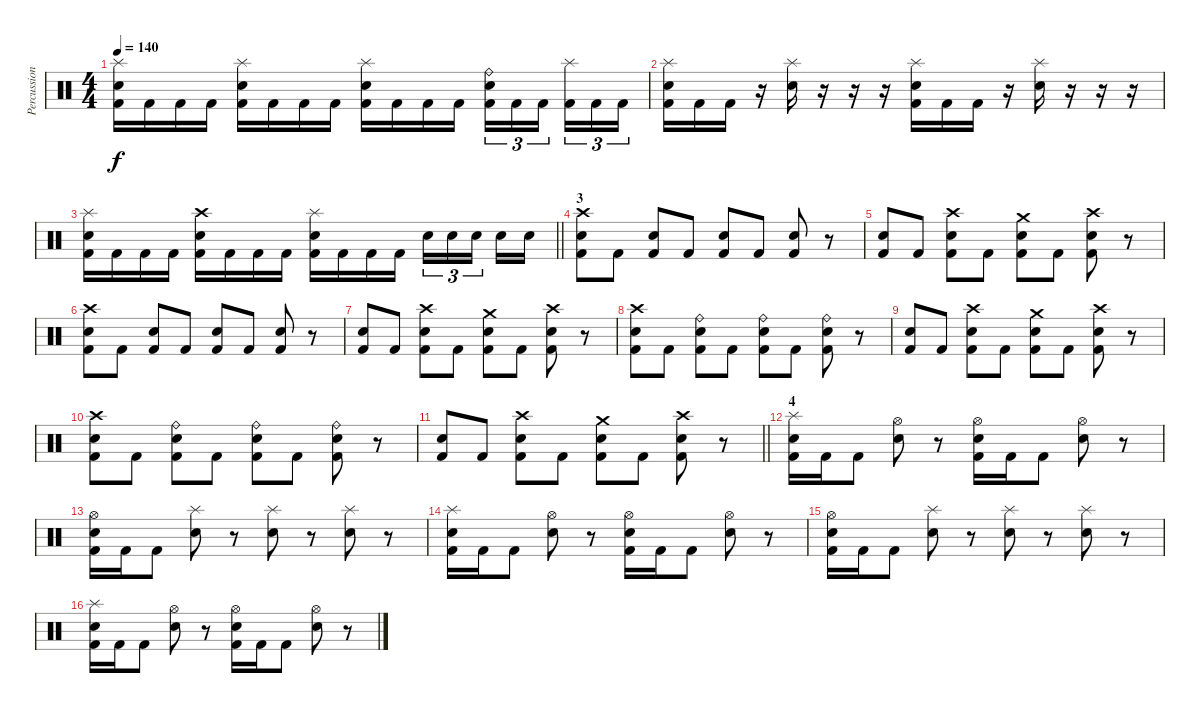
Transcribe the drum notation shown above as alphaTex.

\track ("Percussion" "Percussion") {instrument percussion}
\staff {score}
\articulation defaults
\ts (4 4)
\tempo 140
\clef neutral
\ks c
("Splash (hit)" "Snare (hit) 2" "Kick (hit) 2").16{dy f} "Kick (hit) 2".16 "Kick (hit) 2".16 "Kick (hit) 2".16 ("Splash (hit)" "Snare (hit) 2" "Kick (hit) 2").16 "Kick (hit) 2".16 "Kick (hit) 2".16 "Kick (hit) 2".16 ("Splash (hit)" "Snare (hit) 2" "Kick (hit) 2").16 "Kick (hit) 2".16 "Kick (hit) 2".16 "Kick (hit) 2".16 ("Ride (bell)" "Snare (hit) 2" "Kick (hit) 2").16{tu (3 2)} "Kick (hit) 2".16{tu (3 2)} "Kick (hit) 2".16{tu (3 2) beam splitsecondary} ("Splash (hit)" "Kick (hit) 2").16{tu (3 2)} "Kick (hit) 2".16{tu (3 2)} "Kick (hit) 2".16{tu (3 2)} |
("Splash (hit)" "Snare (hit) 2" "Kick (hit) 2").16 "Kick (hit) 2".16 "Kick (hit) 2".16 r.16 ("Splash (hit)" "Snare (hit) 2").16 r.16 r.16 r.16 ("Splash (hit)" "Snare (hit) 2" "Kick (hit) 2").16 "Kick (hit) 2".16 "Kick (hit) 2".16 r.16 ("Splash (hit)" "Snare (hit) 2").16 r.16 r.16 r.16 |
\barLineRight lightlight
("Splash (hit)" "Snare (hit) 2" "Kick (hit) 2").16 "Kick (hit) 2".16 "Kick (hit) 2".16 "Kick (hit) 2".16 ("Crash high (hit)" "Snare (hit) 2" "Kick (hit) 2").16 "Kick (hit) 2".16 "Kick (hit) 2".16 "Kick (hit) 2".16 ("Splash (hit)" "Snare (hit) 2" "Kick (hit) 2").16 "Kick (hit) 2".16 "Kick (hit) 2".16 "Kick (hit) 2".16 "Snare (hit) 2".16{tu (3 2)} "Snare (hit) 2".16{tu (3 2)} "Snare (hit) 2".16{tu (3 2) beam splitsecondary} "Snare (hit) 2".16 "Snare (hit) 2".16 |
\section ("" "3")
("Crash high (hit)" "Snare (hit) 2" "Kick (hit) 2").8 "Kick (hit) 2".8 ("Snare (hit) 2" "Kick (hit) 2").8 "Kick (hit) 2".8 ("Snare (hit) 2" "Kick (hit) 2").8 "Kick (hit) 2".8 ("Snare (hit) 2" "Kick (hit) 2").8 r.8 |
("Snare (hit) 2" "Kick (hit) 2").8 "Kick (hit) 2".8 ("Crash high (hit)" "Snare (hit) 2" "Kick (hit) 2").8 "Kick (hit) 2".8 ("Crash medium (hit)" "Snare (hit) 2" "Kick (hit) 2").8 "Kick (hit) 2".8 ("Crash high (hit)" "Snare (hit) 2" "Kick (hit) 2").8 r.8 |
("Crash high (hit)" "Snare (hit) 2" "Kick (hit) 2").8 "Kick (hit) 2".8 ("Snare (hit) 2" "Kick (hit) 2").8 "Kick (hit) 2".8 ("Snare (hit) 2" "Kick (hit) 2").8 "Kick (hit) 2".8 ("Snare (hit) 2" "Kick (hit) 2").8 r.8 |
("Snare (hit) 2" "Kick (hit) 2").8 "Kick (hit) 2".8 ("Crash high (hit)" "Snare (hit) 2" "Kick (hit) 2").8 "Kick (hit) 2".8 ("Crash medium (hit)" "Snare (hit) 2" "Kick (hit) 2").8 "Kick (hit) 2".8 ("Crash high (hit)" "Snare (hit) 2" "Kick (hit) 2").8 r.8 |
("Crash high (hit)" "Snare (hit) 2" "Kick (hit) 2").8 "Kick (hit) 2".8 ("Ride (bell)" "Snare (hit) 2" "Kick (hit) 2").8 "Kick (hit) 2".8 ("Ride (bell)" "Snare (hit) 2" "Kick (hit) 2").8 "Kick (hit) 2".8 ("Ride (bell)" "Snare (hit) 2" "Kick (hit) 2").8 r.8 |
("Snare (hit) 2" "Kick (hit) 2").8 "Kick (hit) 2".8 ("Crash high (hit)" "Snare (hit) 2" "Kick (hit) 2").8 "Kick (hit) 2".8 ("Crash medium (hit)" "Snare (hit) 2" "Kick (hit) 2").8 "Kick (hit) 2".8 ("Crash high (hit)" "Snare (hit) 2" "Kick (hit) 2").8 r.8 |
("Crash high (hit)" "Snare (hit) 2" "Kick (hit) 2").8 "Kick (hit) 2".8 ("Ride (bell)" "Snare (hit) 2" "Kick (hit) 2").8 "Kick (hit) 2".8 ("Ride (bell)" "Snare (hit) 2" "Kick (hit) 2").8 "Kick (hit) 2".8 ("Ride (bell)" "Snare (hit) 2" "Kick (hit) 2").8 r.8 |
\barLineRight lightlight
("Snare (hit) 2" "Kick (hit) 2").8 "Kick (hit) 2".8 ("Crash high (hit)" "Snare (hit) 2" "Kick (hit) 2").8 "Kick (hit) 2".8 ("Crash medium (hit)" "Snare (hit) 2" "Kick (hit) 2").8 "Kick (hit) 2".8 ("Crash high (hit)" "Snare (hit) 2" "Kick (hit) 2").8 r.8 |
\section ("" "4")
("Splash (hit)" "Snare (hit) 2" "Kick (hit) 2").16 "Kick (hit) 2".16 "Kick (hit) 2".8 ("Hi-Hat (open)" "Snare (hit) 2").8 r.8 ("Hi-Hat (open)" "Snare (hit) 2" "Kick (hit) 2").16 "Kick (hit) 2".16 "Kick (hit) 2".8 ("Hi-Hat (open)" "Snare (hit) 2").8 r.8 |
("Hi-Hat (open)" "Snare (hit) 2" "Kick (hit) 2").16 "Kick (hit) 2".16 "Kick (hit) 2".8 ("Splash (hit)" "Snare (hit) 2").8 r.8 ("Splash (hit)" "Snare (hit) 2").8 r.8 ("Splash (hit)" "Snare (hit) 2").8 r.8 |
("Splash (hit)" "Snare (hit) 2" "Kick (hit) 2").16 "Kick (hit) 2".16 "Kick (hit) 2".8 ("Hi-Hat (open)" "Snare (hit) 2").8 r.8 ("Hi-Hat (open)" "Snare (hit) 2" "Kick (hit) 2").16 "Kick (hit) 2".16 "Kick (hit) 2".8 ("Hi-Hat (open)" "Snare (hit) 2").8 r.8 |
("Hi-Hat (open)" "Snare (hit) 2" "Kick (hit) 2").16 "Kick (hit) 2".16 "Kick (hit) 2".8 ("Splash (hit)" "Snare (hit) 2").8 r.8 ("Splash (hit)" "Snare (hit) 2").8 r.8 ("Splash (hit)" "Snare (hit) 2").8 r.8 |
("Splash (hit)" "Snare (hit) 2" "Kick (hit) 2").16 "Kick (hit) 2".16 "Kick (hit) 2".8 ("Hi-Hat (open)" "Snare (hit) 2").8 r.8 ("Hi-Hat (open)" "Snare (hit) 2" "Kick (hit) 2").16 "Kick (hit) 2".16 "Kick (hit) 2".8 ("Hi-Hat (open)" "Snare (hit) 2").8 r.8
